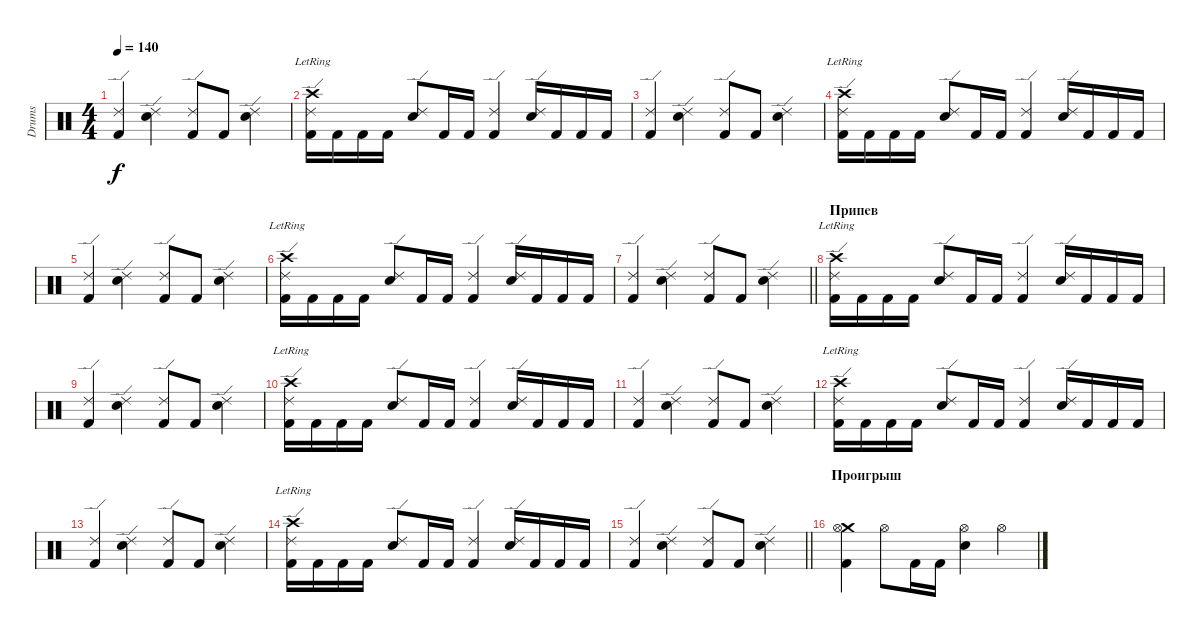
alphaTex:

\track ("Drums" "Drums") {instrument percussion}
\staff {score}
\articulation defaults
\ts (4 4)
\tempo 140
\clef neutral
\ks c
("Ride (edge) 2" "Kick (hit) 2").4{dy f} ("Ride (edge) 2" "Electric Snare (hit)").4 ("Ride (edge) 2" "Kick (hit) 2").8 "Kick (hit) 2".8 ("Ride (edge) 2" "Electric Snare (hit)").4 |
("Crash high (hit)"{lr} "Ride (edge) 2"{lr} "Kick (hit) 2").16 "Kick (hit) 2".16 "Kick (hit) 2".16 "Kick (hit) 2".16 ("Ride (edge) 2" "Electric Snare (hit)").8 "Kick (hit) 2".16 "Kick (hit) 2".16 ("Ride (edge) 2" "Kick (hit) 2").4 ("Ride (edge) 2" "Electric Snare (hit)").16 "Kick (hit) 2".16 "Kick (hit) 2".16 "Kick (hit) 2".16 |
("Ride (edge) 2" "Kick (hit) 2").4 ("Ride (edge) 2" "Electric Snare (hit)").4 ("Ride (edge) 2" "Kick (hit) 2").8 "Kick (hit) 2".8 ("Ride (edge) 2" "Electric Snare (hit)").4 |
("Crash high (hit)"{lr} "Ride (edge) 2"{lr} "Kick (hit) 2").16 "Kick (hit) 2".16 "Kick (hit) 2".16 "Kick (hit) 2".16 ("Ride (edge) 2" "Electric Snare (hit)").8 "Kick (hit) 2".16 "Kick (hit) 2".16 ("Ride (edge) 2" "Kick (hit) 2").4 ("Ride (edge) 2" "Electric Snare (hit)").16 "Kick (hit) 2".16 "Kick (hit) 2".16 "Kick (hit) 2".16 |
("Ride (edge) 2" "Kick (hit) 2").4 ("Ride (edge) 2" "Electric Snare (hit)").4 ("Ride (edge) 2" "Kick (hit) 2").8 "Kick (hit) 2".8 ("Ride (edge) 2" "Electric Snare (hit)").4 |
("Crash high (hit)"{lr} "Ride (edge) 2"{lr} "Kick (hit) 2").16 "Kick (hit) 2".16 "Kick (hit) 2".16 "Kick (hit) 2".16 ("Ride (edge) 2" "Electric Snare (hit)").8 "Kick (hit) 2".16 "Kick (hit) 2".16 ("Ride (edge) 2" "Kick (hit) 2").4 ("Ride (edge) 2" "Electric Snare (hit)").16 "Kick (hit) 2".16 "Kick (hit) 2".16 "Kick (hit) 2".16 |
\barLineRight lightlight
("Ride (edge) 2" "Kick (hit) 2").4 ("Ride (edge) 2" "Electric Snare (hit)").4 ("Ride (edge) 2" "Kick (hit) 2").8 "Kick (hit) 2".8 ("Ride (edge) 2" "Electric Snare (hit)").4 |
\section ("" "Припев")
("Crash high (hit)"{lr} "Ride (edge) 2"{lr} "Kick (hit) 2").16 "Kick (hit) 2".16 "Kick (hit) 2".16 "Kick (hit) 2".16 ("Ride (edge) 2" "Electric Snare (hit)").8 "Kick (hit) 2".16 "Kick (hit) 2".16 ("Ride (edge) 2" "Kick (hit) 2").4 ("Ride (edge) 2" "Electric Snare (hit)").16 "Kick (hit) 2".16 "Kick (hit) 2".16 "Kick (hit) 2".16 |
("Ride (edge) 2" "Kick (hit) 2").4 ("Ride (edge) 2" "Electric Snare (hit)").4 ("Ride (edge) 2" "Kick (hit) 2").8 "Kick (hit) 2".8 ("Ride (edge) 2" "Electric Snare (hit)").4 |
("Crash high (hit)"{lr} "Ride (edge) 2"{lr} "Kick (hit) 2").16 "Kick (hit) 2".16 "Kick (hit) 2".16 "Kick (hit) 2".16 ("Ride (edge) 2" "Electric Snare (hit)").8 "Kick (hit) 2".16 "Kick (hit) 2".16 ("Ride (edge) 2" "Kick (hit) 2").4 ("Ride (edge) 2" "Electric Snare (hit)").16 "Kick (hit) 2".16 "Kick (hit) 2".16 "Kick (hit) 2".16 |
("Ride (edge) 2" "Kick (hit) 2").4 ("Ride (edge) 2" "Electric Snare (hit)").4 ("Ride (edge) 2" "Kick (hit) 2").8 "Kick (hit) 2".8 ("Ride (edge) 2" "Electric Snare (hit)").4 |
("Crash high (hit)"{lr} "Ride (edge) 2"{lr} "Kick (hit) 2").16 "Kick (hit) 2".16 "Kick (hit) 2".16 "Kick (hit) 2".16 ("Ride (edge) 2" "Electric Snare (hit)").8 "Kick (hit) 2".16 "Kick (hit) 2".16 ("Ride (edge) 2" "Kick (hit) 2").4 ("Ride (edge) 2" "Electric Snare (hit)").16 "Kick (hit) 2".16 "Kick (hit) 2".16 "Kick (hit) 2".16 |
("Ride (edge) 2" "Kick (hit) 2").4 ("Ride (edge) 2" "Electric Snare (hit)").4 ("Ride (edge) 2" "Kick (hit) 2").8 "Kick (hit) 2".8 ("Ride (edge) 2" "Electric Snare (hit)").4 |
("Crash high (hit)"{lr} "Ride (edge) 2"{lr} "Kick (hit) 2").16 "Kick (hit) 2".16 "Kick (hit) 2".16 "Kick (hit) 2".16 ("Ride (edge) 2" "Electric Snare (hit)").8 "Kick (hit) 2".16 "Kick (hit) 2".16 ("Ride (edge) 2" "Kick (hit) 2").4 ("Ride (edge) 2" "Electric Snare (hit)").16 "Kick (hit) 2".16 "Kick (hit) 2".16 "Kick (hit) 2".16 |
\barLineRight lightlight
("Ride (edge) 2" "Kick (hit) 2").4 ("Ride (edge) 2" "Electric Snare (hit)").4 ("Ride (edge) 2" "Kick (hit) 2").8 "Kick (hit) 2".8 ("Ride (edge) 2" "Electric Snare (hit)").4 |
\section ("" "Проигрыш")
("Crash medium (hit)" "Kick (hit) 2" "Hi-Hat (open)").4 "Hi-Hat (open)".8 "Kick (hit) 2".16 "Kick (hit) 2".16 ("Electric Snare (hit)" "Hi-Hat (open)").4 "Hi-Hat (open)".4
